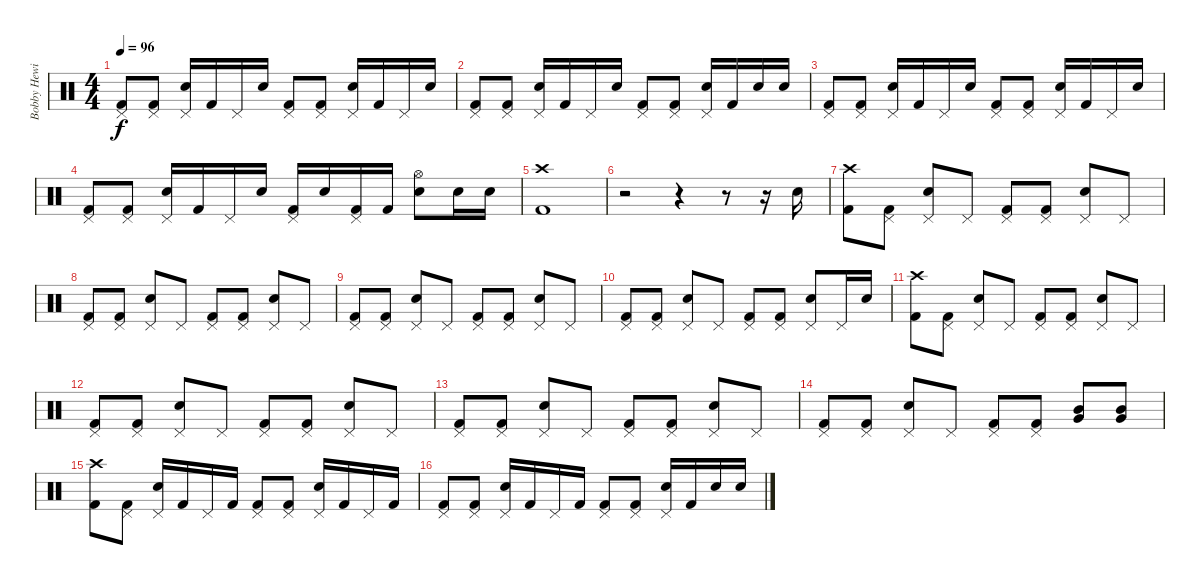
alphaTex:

\track ("Bobby Hewitt (Elec. Drums)" "Bobby Hewi") {instrument percussion}
\staff {score}
\articulation defaults
\ts (4 4)
\tempo 96
\clef neutral
\ks c
("Pedal Hi-Hat (hit)" "Kick (hit) 2").8{dy f} ("Pedal Hi-Hat (hit)" "Kick (hit) 2").8 ("Pedal Hi-Hat (hit)" "Electric Snare (hit)").16 "Kick (hit) 2".16 "Pedal Hi-Hat (hit)".16 "Electric Snare (hit)".16 ("Pedal Hi-Hat (hit)" "Kick (hit) 2").8 ("Pedal Hi-Hat (hit)" "Kick (hit) 2").8 ("Pedal Hi-Hat (hit)" "Electric Snare (hit)").16 "Kick (hit) 2".16 "Pedal Hi-Hat (hit)".16 "Electric Snare (hit)".16 |
("Pedal Hi-Hat (hit)" "Kick (hit) 2").8 ("Pedal Hi-Hat (hit)" "Kick (hit) 2").8 ("Pedal Hi-Hat (hit)" "Electric Snare (hit)").16 "Kick (hit) 2".16 "Pedal Hi-Hat (hit)".16 "Electric Snare (hit)".16 ("Pedal Hi-Hat (hit)" "Kick (hit) 2").8 ("Pedal Hi-Hat (hit)" "Kick (hit) 2").8 ("Pedal Hi-Hat (hit)" "Electric Snare (hit)").16 "Kick (hit) 2".16 "Electric Snare (hit)".16 "Electric Snare (hit)".16 |
("Pedal Hi-Hat (hit)" "Kick (hit) 2").8 ("Pedal Hi-Hat (hit)" "Kick (hit) 2").8 ("Pedal Hi-Hat (hit)" "Electric Snare (hit)").16 "Kick (hit) 2".16 "Pedal Hi-Hat (hit)".16 "Electric Snare (hit)".16 ("Pedal Hi-Hat (hit)" "Kick (hit) 2").8 ("Pedal Hi-Hat (hit)" "Kick (hit) 2").8 ("Pedal Hi-Hat (hit)" "Electric Snare (hit)").16 "Kick (hit) 2".16 "Pedal Hi-Hat (hit)".16 "Electric Snare (hit)".16 |
("Pedal Hi-Hat (hit)" "Kick (hit) 2").8 ("Pedal Hi-Hat (hit)" "Kick (hit) 2").8 ("Pedal Hi-Hat (hit)" "Electric Snare (hit)").16 "Kick (hit) 2".16 "Pedal Hi-Hat (hit)".16 "Electric Snare (hit)".16 ("Pedal Hi-Hat (hit)" "Kick (hit) 2").16 "Electric Snare (hit)".16 ("Pedal Hi-Hat (hit)" "Kick (hit) 2").16 "Kick (hit) 2".16 ("Hi-Hat (open)" "Electric Snare (hit)").8 "Electric Snare (hit)".16 "Electric Snare (hit)".16 |
("Crash high (hit)" "Kick (hit) 2").1 |
r.2 r.4 r.8 r.16 "Electric Snare (hit)".16 |
("Crash high (hit)" "Kick (hit) 2").8 ("Pedal Hi-Hat (hit)" "Kick (hit) 2").8 ("Pedal Hi-Hat (hit)" "Electric Snare (hit)").8 "Pedal Hi-Hat (hit)".8 ("Pedal Hi-Hat (hit)" "Kick (hit) 2").8 ("Pedal Hi-Hat (hit)" "Kick (hit) 2").8 ("Pedal Hi-Hat (hit)" "Electric Snare (hit)").8 "Pedal Hi-Hat (hit)".8 |
("Pedal Hi-Hat (hit)" "Kick (hit) 2").8 ("Pedal Hi-Hat (hit)" "Kick (hit) 2").8 ("Pedal Hi-Hat (hit)" "Electric Snare (hit)").8 "Pedal Hi-Hat (hit)".8 ("Pedal Hi-Hat (hit)" "Kick (hit) 2").8 ("Pedal Hi-Hat (hit)" "Kick (hit) 2").8 ("Pedal Hi-Hat (hit)" "Electric Snare (hit)").8 "Pedal Hi-Hat (hit)".8 |
("Pedal Hi-Hat (hit)" "Kick (hit) 2").8 ("Pedal Hi-Hat (hit)" "Kick (hit) 2").8 ("Pedal Hi-Hat (hit)" "Electric Snare (hit)").8 "Pedal Hi-Hat (hit)".8 ("Pedal Hi-Hat (hit)" "Kick (hit) 2").8 ("Pedal Hi-Hat (hit)" "Kick (hit) 2").8 ("Pedal Hi-Hat (hit)" "Electric Snare (hit)").8 "Pedal Hi-Hat (hit)".8 |
("Pedal Hi-Hat (hit)" "Kick (hit) 2").8 ("Pedal Hi-Hat (hit)" "Kick (hit) 2").8 ("Pedal Hi-Hat (hit)" "Electric Snare (hit)").8 "Pedal Hi-Hat (hit)".8 ("Pedal Hi-Hat (hit)" "Kick (hit) 2").8 ("Pedal Hi-Hat (hit)" "Kick (hit) 2").8 ("Pedal Hi-Hat (hit)" "Electric Snare (hit)").8 "Pedal Hi-Hat (hit)".16 "Electric Snare (hit)".16 |
("Crash high (hit)" "Kick (hit) 2").8 ("Pedal Hi-Hat (hit)" "Kick (hit) 2").8 ("Pedal Hi-Hat (hit)" "Electric Snare (hit)").8 "Pedal Hi-Hat (hit)".8 ("Pedal Hi-Hat (hit)" "Kick (hit) 2").8 ("Pedal Hi-Hat (hit)" "Kick (hit) 2").8 ("Pedal Hi-Hat (hit)" "Electric Snare (hit)").8 "Pedal Hi-Hat (hit)".8 |
("Pedal Hi-Hat (hit)" "Kick (hit) 2").8 ("Pedal Hi-Hat (hit)" "Kick (hit) 2").8 ("Pedal Hi-Hat (hit)" "Electric Snare (hit)").8 "Pedal Hi-Hat (hit)".8 ("Pedal Hi-Hat (hit)" "Kick (hit) 2").8 ("Pedal Hi-Hat (hit)" "Kick (hit) 2").8 ("Pedal Hi-Hat (hit)" "Electric Snare (hit)").8 "Pedal Hi-Hat (hit)".8 |
("Pedal Hi-Hat (hit)" "Kick (hit) 2").8 ("Pedal Hi-Hat (hit)" "Kick (hit) 2").8 ("Pedal Hi-Hat (hit)" "Electric Snare (hit)").8 "Pedal Hi-Hat (hit)".8 ("Pedal Hi-Hat (hit)" "Kick (hit) 2").8 ("Pedal Hi-Hat (hit)" "Kick (hit) 2").8 ("Pedal Hi-Hat (hit)" "Electric Snare (hit)").8 "Pedal Hi-Hat (hit)".8 |
("Pedal Hi-Hat (hit)" "Kick (hit) 2").8 ("Pedal Hi-Hat (hit)" "Kick (hit) 2").8 ("Pedal Hi-Hat (hit)" "Electric Snare (hit)").8 "Pedal Hi-Hat (hit)".8 ("Pedal Hi-Hat (hit)" "Kick (hit) 2").8 ("Pedal Hi-Hat (hit)" "Kick (hit) 2").8 ("Mid Tom (hit)" "Very Low Tom (hit)").8 ("Mid Tom (hit)" "Very Low Tom (hit)").8 |
("Crash high (hit)" "Kick (hit) 2").8 ("Pedal Hi-Hat (hit)" "Kick (hit) 2").8 ("Pedal Hi-Hat (hit)" "Electric Snare (hit)").16 "Kick (hit) 2".16 "Pedal Hi-Hat (hit)".16 "Kick (hit) 2".16 ("Pedal Hi-Hat (hit)" "Kick (hit) 2").8 ("Pedal Hi-Hat (hit)" "Kick (hit) 2").8 ("Pedal Hi-Hat (hit)" "Electric Snare (hit)").16 "Kick (hit) 2".16 "Pedal Hi-Hat (hit)".16 "Kick (hit) 2".16 |
("Pedal Hi-Hat (hit)" "Kick (hit) 2").8 ("Pedal Hi-Hat (hit)" "Kick (hit) 2").8 ("Pedal Hi-Hat (hit)" "Electric Snare (hit)").16 "Kick (hit) 2".16 "Pedal Hi-Hat (hit)".16 "Kick (hit) 2".16 ("Pedal Hi-Hat (hit)" "Kick (hit) 2").8 ("Pedal Hi-Hat (hit)" "Kick (hit) 2").8 ("Pedal Hi-Hat (hit)" "Electric Snare (hit)").16 "Kick (hit) 2".16 "Electric Snare (hit)".16 "Electric Snare (hit)".16
